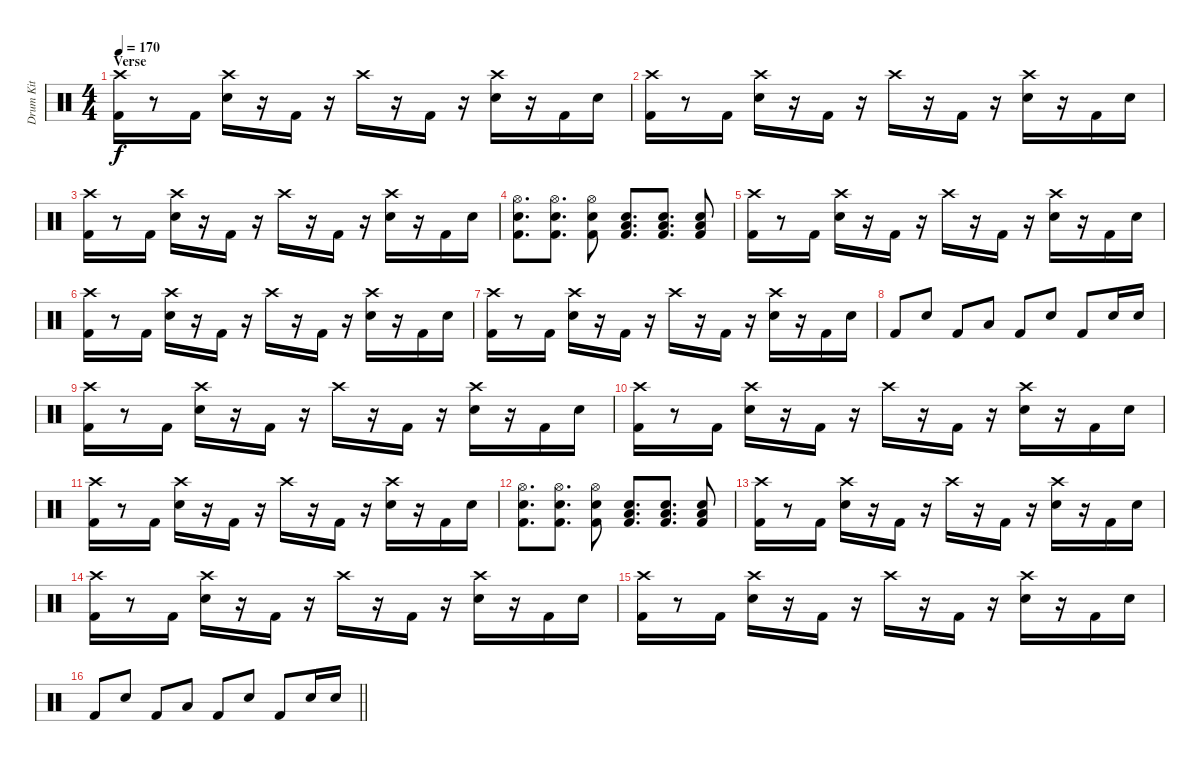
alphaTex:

\track ("Drum Kit" "Drum Kit") {mute instrument percussion}
\staff {score}
\articulation defaults
\ts (4 4)
\section ("" "Verse")
\tempo 170
\clef neutral
\ks c
("Crash high (hit)" "Kick (hit) 2").16{dy f} r.8 "Kick (hit) 2".16 ("Crash high (hit)" "Electric Snare (hit)").16 r.16 "Kick (hit) 2".16 r.16 "Crash high (hit)".16 r.16 "Kick (hit) 2".16 r.16 ("Crash high (hit)" "Electric Snare (hit)").16 r.16 "Kick (hit) 2".16 "Electric Snare (hit)".16 |
("Crash high (hit)" "Kick (hit) 2").16 r.8 "Kick (hit) 2".16 ("Crash high (hit)" "Electric Snare (hit)").16 r.16 "Kick (hit) 2".16 r.16 "Crash high (hit)".16 r.16 "Kick (hit) 2".16 r.16 ("Crash high (hit)" "Electric Snare (hit)").16 r.16 "Kick (hit) 2".16 "Electric Snare (hit)".16 |
("Crash high (hit)" "Kick (hit) 2").16 r.8 "Kick (hit) 2".16 ("Crash high (hit)" "Electric Snare (hit)").16 r.16 "Kick (hit) 2".16 r.16 "Crash high (hit)".16 r.16 "Kick (hit) 2".16 r.16 ("Crash high (hit)" "Electric Snare (hit)").16 r.16 "Kick (hit) 2".16 "Electric Snare (hit)".16 |
("Hi-Hat (open)" "Electric Snare (hit)" "Kick (hit) 2").8{d} ("Hi-Hat (open)" "Electric Snare (hit)" "Kick (hit) 2").8{d} ("Hi-Hat (open)" "Electric Snare (hit)" "Kick (hit) 2").8 ("Low Floor Tom (hit)" "Electric Snare (hit)" "Kick (hit) 2").8{d} ("Low Floor Tom (hit)" "Electric Snare (hit)" "Kick (hit) 2").8{d} ("Low Floor Tom (hit)" "Electric Snare (hit)" "Kick (hit) 2").8 |
("Crash high (hit)" "Kick (hit) 2").16 r.8 "Kick (hit) 2".16 ("Crash high (hit)" "Electric Snare (hit)").16 r.16 "Kick (hit) 2".16 r.16 "Crash high (hit)".16 r.16 "Kick (hit) 2".16 r.16 ("Crash high (hit)" "Electric Snare (hit)").16 r.16 "Kick (hit) 2".16 "Electric Snare (hit)".16 |
("Crash high (hit)" "Kick (hit) 2").16 r.8 "Kick (hit) 2".16 ("Crash high (hit)" "Electric Snare (hit)").16 r.16 "Kick (hit) 2".16 r.16 "Crash high (hit)".16 r.16 "Kick (hit) 2".16 r.16 ("Crash high (hit)" "Electric Snare (hit)").16 r.16 "Kick (hit) 2".16 "Electric Snare (hit)".16 |
("Crash high (hit)" "Kick (hit) 2").16 r.8 "Kick (hit) 2".16 ("Crash high (hit)" "Electric Snare (hit)").16 r.16 "Kick (hit) 2".16 r.16 "Crash high (hit)".16 r.16 "Kick (hit) 2".16 r.16 ("Crash high (hit)" "Electric Snare (hit)").16 r.16 "Kick (hit) 2".16 "Electric Snare (hit)".16 |
"Kick (hit) 2".8 "Electric Snare (hit)".8 "Kick (hit) 2".8 "Low Tom (hit)".8 "Kick (hit) 2".8 "Electric Snare (hit)".8 "Kick (hit) 2".8 "Electric Snare (hit)".16 "Electric Snare (hit)".16 |
("Crash high (hit)" "Kick (hit) 2").16 r.8 "Kick (hit) 2".16 ("Crash high (hit)" "Electric Snare (hit)").16 r.16 "Kick (hit) 2".16 r.16 "Crash high (hit)".16 r.16 "Kick (hit) 2".16 r.16 ("Crash high (hit)" "Electric Snare (hit)").16 r.16 "Kick (hit) 2".16 "Electric Snare (hit)".16 |
("Crash high (hit)" "Kick (hit) 2").16 r.8 "Kick (hit) 2".16 ("Crash high (hit)" "Electric Snare (hit)").16 r.16 "Kick (hit) 2".16 r.16 "Crash high (hit)".16 r.16 "Kick (hit) 2".16 r.16 ("Crash high (hit)" "Electric Snare (hit)").16 r.16 "Kick (hit) 2".16 "Electric Snare (hit)".16 |
("Crash high (hit)" "Kick (hit) 2").16 r.8 "Kick (hit) 2".16 ("Crash high (hit)" "Electric Snare (hit)").16 r.16 "Kick (hit) 2".16 r.16 "Crash high (hit)".16 r.16 "Kick (hit) 2".16 r.16 ("Crash high (hit)" "Electric Snare (hit)").16 r.16 "Kick (hit) 2".16 "Electric Snare (hit)".16 |
("Hi-Hat (open)" "Electric Snare (hit)" "Kick (hit) 2").8{d} ("Hi-Hat (open)" "Electric Snare (hit)" "Kick (hit) 2").8{d} ("Hi-Hat (open)" "Electric Snare (hit)" "Kick (hit) 2").8 ("Low Floor Tom (hit)" "Electric Snare (hit)" "Kick (hit) 2").8{d} ("Low Floor Tom (hit)" "Electric Snare (hit)" "Kick (hit) 2").8{d} ("Low Floor Tom (hit)" "Electric Snare (hit)" "Kick (hit) 2").8 |
("Crash high (hit)" "Kick (hit) 2").16 r.8 "Kick (hit) 2".16 ("Crash high (hit)" "Electric Snare (hit)").16 r.16 "Kick (hit) 2".16 r.16 "Crash high (hit)".16 r.16 "Kick (hit) 2".16 r.16 ("Crash high (hit)" "Electric Snare (hit)").16 r.16 "Kick (hit) 2".16 "Electric Snare (hit)".16 |
("Crash high (hit)" "Kick (hit) 2").16 r.8 "Kick (hit) 2".16 ("Crash high (hit)" "Electric Snare (hit)").16 r.16 "Kick (hit) 2".16 r.16 "Crash high (hit)".16 r.16 "Kick (hit) 2".16 r.16 ("Crash high (hit)" "Electric Snare (hit)").16 r.16 "Kick (hit) 2".16 "Electric Snare (hit)".16 |
("Crash high (hit)" "Kick (hit) 2").16 r.8 "Kick (hit) 2".16 ("Crash high (hit)" "Electric Snare (hit)").16 r.16 "Kick (hit) 2".16 r.16 "Crash high (hit)".16 r.16 "Kick (hit) 2".16 r.16 ("Crash high (hit)" "Electric Snare (hit)").16 r.16 "Kick (hit) 2".16 "Electric Snare (hit)".16 |
\barLineRight lightlight "Kick (hit) 2".8 "Electric Snare (hit)".8 "Kick (hit) 2".8 "Low Tom (hit)".8 "Kick (hit) 2".8 "Electric Snare (hit)".8 "Kick (hit) 2".8 "Electric Snare (hit)".16 "Electric Snare (hit)".16
